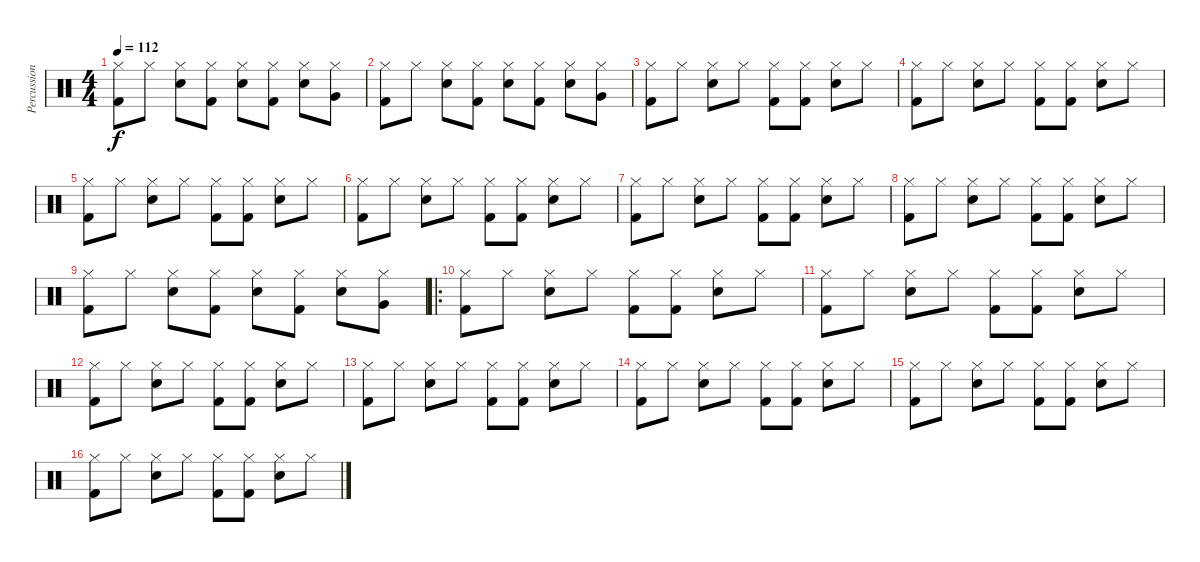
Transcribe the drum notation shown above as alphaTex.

\track ("Percussion" "Percussion") {instrument percussion}
\staff {score}
\articulation defaults
\ts (4 4)
\tempo 112
\clef neutral
\ks c
("Kick (hit) 2" "Hi-Hat (closed)").8{dy f} "Hi-Hat (closed)".8 ("Snare (hit) 2" "Hi-Hat (closed)").8 ("Kick (hit) 2" "Hi-Hat (closed)").8 ("Snare (hit) 2" "Hi-Hat (closed)").8 ("Kick (hit) 2" "Hi-Hat (closed)").8 ("Snare (hit) 2" "Hi-Hat (closed)").8 ("Very Low Tom (hit)" "Hi-Hat (closed)").8 |
("Kick (hit) 2" "Hi-Hat (closed)").8 "Hi-Hat (closed)".8 ("Snare (hit) 2" "Hi-Hat (closed)").8 ("Kick (hit) 2" "Hi-Hat (closed)").8 ("Snare (hit) 2" "Hi-Hat (closed)").8 ("Kick (hit) 2" "Hi-Hat (closed)").8 ("Snare (hit) 2" "Hi-Hat (closed)").8 ("Very Low Tom (hit)" "Hi-Hat (closed)").8 |
("Kick (hit) 2" "Hi-Hat (closed)").8 "Hi-Hat (closed)".8 ("Snare (hit) 2" "Hi-Hat (closed)").8 "Hi-Hat (closed)".8 ("Kick (hit) 2" "Hi-Hat (closed)").8 ("Kick (hit) 2" "Hi-Hat (closed)").8 ("Snare (hit) 2" "Hi-Hat (closed)").8 "Hi-Hat (closed)".8 |
("Kick (hit) 2" "Hi-Hat (closed)").8 "Hi-Hat (closed)".8 ("Snare (hit) 2" "Hi-Hat (closed)").8 "Hi-Hat (closed)".8 ("Kick (hit) 2" "Hi-Hat (closed)").8 ("Kick (hit) 2" "Hi-Hat (closed)").8 ("Snare (hit) 2" "Hi-Hat (closed)").8 "Hi-Hat (closed)".8 |
("Kick (hit) 2" "Hi-Hat (closed)").8 "Hi-Hat (closed)".8 ("Snare (hit) 2" "Hi-Hat (closed)").8 "Hi-Hat (closed)".8 ("Kick (hit) 2" "Hi-Hat (closed)").8 ("Kick (hit) 2" "Hi-Hat (closed)").8 ("Snare (hit) 2" "Hi-Hat (closed)").8 "Hi-Hat (closed)".8 |
("Kick (hit) 2" "Hi-Hat (closed)").8 "Hi-Hat (closed)".8 ("Snare (hit) 2" "Hi-Hat (closed)").8 "Hi-Hat (closed)".8 ("Kick (hit) 2" "Hi-Hat (closed)").8 ("Kick (hit) 2" "Hi-Hat (closed)").8 ("Snare (hit) 2" "Hi-Hat (closed)").8 "Hi-Hat (closed)".8 |
("Kick (hit) 2" "Hi-Hat (closed)").8 "Hi-Hat (closed)".8 ("Snare (hit) 2" "Hi-Hat (closed)").8 "Hi-Hat (closed)".8 ("Kick (hit) 2" "Hi-Hat (closed)").8 ("Kick (hit) 2" "Hi-Hat (closed)").8 ("Snare (hit) 2" "Hi-Hat (closed)").8 "Hi-Hat (closed)".8 |
("Kick (hit) 2" "Hi-Hat (closed)").8 "Hi-Hat (closed)".8 ("Snare (hit) 2" "Hi-Hat (closed)").8 "Hi-Hat (closed)".8 ("Kick (hit) 2" "Hi-Hat (closed)").8 ("Kick (hit) 2" "Hi-Hat (closed)").8 ("Snare (hit) 2" "Hi-Hat (closed)").8 "Hi-Hat (closed)".8 |
("Kick (hit) 2" "Hi-Hat (closed)").8 "Hi-Hat (closed)".8 ("Snare (hit) 2" "Hi-Hat (closed)").8 ("Kick (hit) 2" "Hi-Hat (closed)").8 ("Snare (hit) 2" "Hi-Hat (closed)").8 ("Kick (hit) 2" "Hi-Hat (closed)").8 ("Snare (hit) 2" "Hi-Hat (closed)").8 ("Very Low Tom (hit)" "Hi-Hat (closed)").8 |
\ro
("Kick (hit) 2" "Hi-Hat (closed)").8 "Hi-Hat (closed)".8 ("Snare (hit) 2" "Hi-Hat (closed)").8 "Hi-Hat (closed)".8 ("Kick (hit) 2" "Hi-Hat (closed)").8 ("Kick (hit) 2" "Hi-Hat (closed)").8 ("Snare (hit) 2" "Hi-Hat (closed)").8 "Hi-Hat (closed)".8 |
("Kick (hit) 2" "Hi-Hat (closed)").8 "Hi-Hat (closed)".8 ("Snare (hit) 2" "Hi-Hat (closed)").8 "Hi-Hat (closed)".8 ("Kick (hit) 2" "Hi-Hat (closed)").8 ("Kick (hit) 2" "Hi-Hat (closed)").8 ("Snare (hit) 2" "Hi-Hat (closed)").8 "Hi-Hat (closed)".8 |
("Kick (hit) 2" "Hi-Hat (closed)").8 "Hi-Hat (closed)".8 ("Snare (hit) 2" "Hi-Hat (closed)").8 "Hi-Hat (closed)".8 ("Kick (hit) 2" "Hi-Hat (closed)").8 ("Kick (hit) 2" "Hi-Hat (closed)").8 ("Snare (hit) 2" "Hi-Hat (closed)").8 "Hi-Hat (closed)".8 |
("Kick (hit) 2" "Hi-Hat (closed)").8 "Hi-Hat (closed)".8 ("Snare (hit) 2" "Hi-Hat (closed)").8 "Hi-Hat (closed)".8 ("Kick (hit) 2" "Hi-Hat (closed)").8 ("Kick (hit) 2" "Hi-Hat (closed)").8 ("Snare (hit) 2" "Hi-Hat (closed)").8 "Hi-Hat (closed)".8 |
("Kick (hit) 2" "Hi-Hat (closed)").8 "Hi-Hat (closed)".8 ("Snare (hit) 2" "Hi-Hat (closed)").8 "Hi-Hat (closed)".8 ("Kick (hit) 2" "Hi-Hat (closed)").8 ("Kick (hit) 2" "Hi-Hat (closed)").8 ("Snare (hit) 2" "Hi-Hat (closed)").8 "Hi-Hat (closed)".8 |
("Kick (hit) 2" "Hi-Hat (closed)").8 "Hi-Hat (closed)".8 ("Snare (hit) 2" "Hi-Hat (closed)").8 "Hi-Hat (closed)".8 ("Kick (hit) 2" "Hi-Hat (closed)").8 ("Kick (hit) 2" "Hi-Hat (closed)").8 ("Snare (hit) 2" "Hi-Hat (closed)").8 "Hi-Hat (closed)".8 |
("Kick (hit) 2" "Hi-Hat (closed)").8 "Hi-Hat (closed)".8 ("Snare (hit) 2" "Hi-Hat (closed)").8 "Hi-Hat (closed)".8 ("Kick (hit) 2" "Hi-Hat (closed)").8 ("Kick (hit) 2" "Hi-Hat (closed)").8 ("Snare (hit) 2" "Hi-Hat (closed)").8 "Hi-Hat (closed)".8
